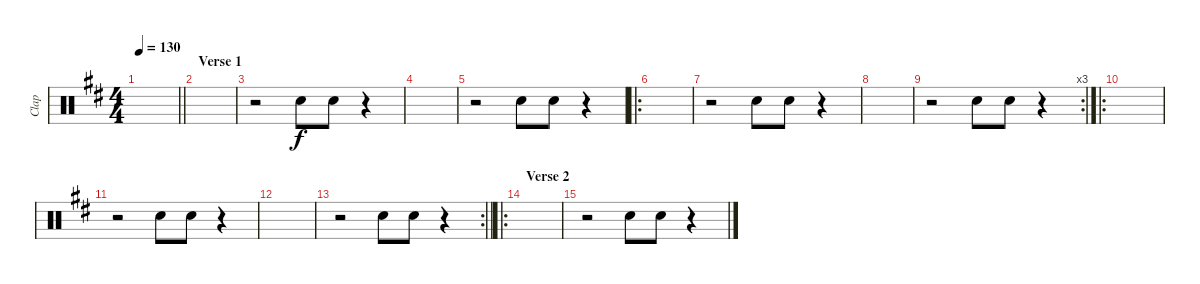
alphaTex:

\track ("Clap" "Clap") {instrument percussion}
\staff {score}
\articulation defaults
\ts (4 4)
\tempo 130
\clef neutral
\barLineRight lightlight
\ks d
|
\section ("" "Verse 1")
|
r.2 "Hand Clap (hit)".8 "Hand Clap (hit)".8 r.4 |
|
r.2 "Hand Clap (hit)".8 "Hand Clap (hit)".8 r.4 |
\ro
|
r.2 "Hand Clap (hit)".8 "Hand Clap (hit)".8 r.4 |
|
\rc 3
r.2 "Hand Clap (hit)".8 "Hand Clap (hit)".8 r.4 |
\ro
|
r.2 "Hand Clap (hit)".8 "Hand Clap (hit)".8 r.4 |
|
\rc 2
\barLineRight lightlight
r.2 "Hand Clap (hit)".8 "Hand Clap (hit)".8 r.4 |
\ro
\section ("" "Verse 2")
|
r.2 "Hand Clap (hit)".8 "Hand Clap (hit)".8 r.4
